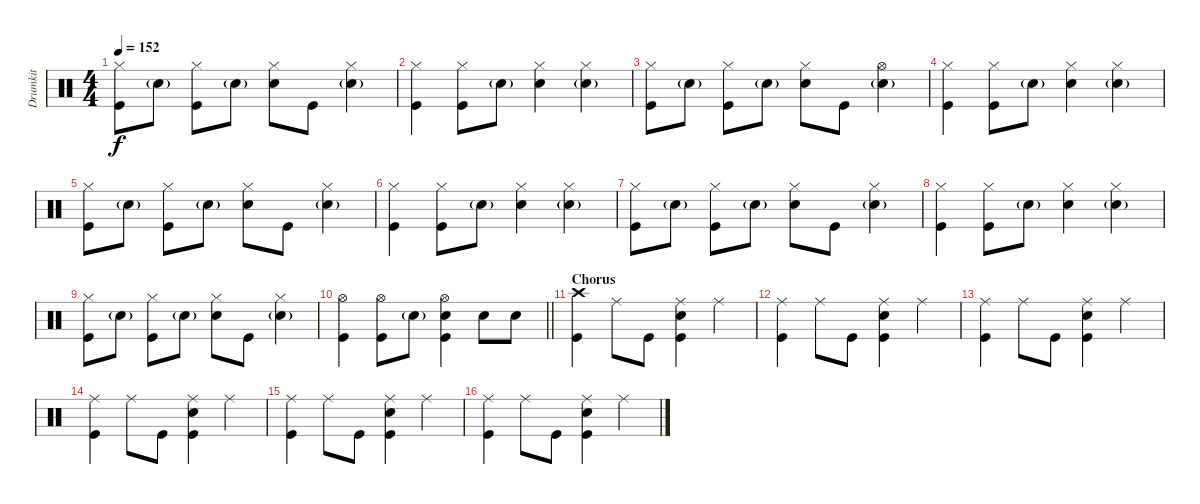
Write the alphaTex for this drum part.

\track ("Drumkit" "Drumkit") {instrument percussion}
\staff {score}
\articulation defaults
\ts (4 4)
\tempo 152
\clef neutral
\ks c
("Kick (hit)" "Hi-Hat (closed)").8{dy f} "Snare (hit) 2"{g}.8 ("Hi-Hat (closed)" "Kick (hit)").8 "Snare (hit) 2"{g}.8 ("Hi-Hat (closed)" "Snare (hit) 2").8 "Kick (hit)".8 ("Hi-Hat (closed)" "Snare (hit) 2"{g}).4 |
("Kick (hit)" "Hi-Hat (closed)").4 ("Hi-Hat (closed)" "Kick (hit)").8 "Snare (hit) 2"{g}.8 ("Hi-Hat (closed)" "Snare (hit) 2").4 ("Hi-Hat (closed)" "Snare (hit) 2"{g}).4 |
("Kick (hit)" "Hi-Hat (closed)").8 "Snare (hit) 2"{g}.8 ("Hi-Hat (closed)" "Kick (hit)").8 "Snare (hit) 2"{g}.8 ("Hi-Hat (closed)" "Snare (hit) 2").8 "Kick (hit)".8 ("Hi-Hat (open)" "Snare (hit) 2"{g}).4 |
("Kick (hit)" "Hi-Hat (closed)").4 ("Hi-Hat (closed)" "Kick (hit)").8 "Snare (hit) 2"{g}.8 ("Hi-Hat (closed)" "Snare (hit) 2").4 ("Hi-Hat (closed)" "Snare (hit) 2"{g}).4 |
("Kick (hit)" "Hi-Hat (closed)").8 "Snare (hit) 2"{g}.8 ("Hi-Hat (closed)" "Kick (hit)").8 "Snare (hit) 2"{g}.8 ("Hi-Hat (closed)" "Snare (hit) 2").8 "Kick (hit)".8 ("Hi-Hat (closed)" "Snare (hit) 2"{g}).4 |
("Kick (hit)" "Hi-Hat (closed)").4 ("Hi-Hat (closed)" "Kick (hit)").8 "Snare (hit) 2"{g}.8 ("Hi-Hat (closed)" "Snare (hit) 2").4 ("Hi-Hat (closed)" "Snare (hit) 2"{g}).4 |
("Kick (hit)" "Hi-Hat (closed)").8 "Snare (hit) 2"{g}.8 ("Hi-Hat (closed)" "Kick (hit)").8 "Snare (hit) 2"{g}.8 ("Hi-Hat (closed)" "Snare (hit) 2").8 "Kick (hit)".8 ("Hi-Hat (closed)" "Snare (hit) 2"{g}).4 |
("Kick (hit)" "Hi-Hat (closed)").4 ("Hi-Hat (closed)" "Kick (hit)").8 "Snare (hit) 2"{g}.8 ("Hi-Hat (closed)" "Snare (hit) 2").4 ("Hi-Hat (closed)" "Snare (hit) 2"{g}).4 |
("Kick (hit)" "Hi-Hat (closed)").8 "Snare (hit) 2"{g}.8 ("Hi-Hat (closed)" "Kick (hit)").8 "Snare (hit) 2"{g}.8 ("Hi-Hat (closed)" "Snare (hit) 2").8 "Kick (hit)".8 ("Hi-Hat (closed)" "Snare (hit) 2"{g}).4 |
\barLineRight lightlight
("Kick (hit)" "Hi-Hat (open)").4 ("Hi-Hat (open)" "Kick (hit)").8 "Snare (hit) 2"{g}.8 ("Kick (hit)" "Hi-Hat (open)" "Snare (hit) 2").4 "Snare (hit) 2".8 "Snare (hit) 2".8 |
\section ("" "Chorus")
("Crash high (hit)" "Kick (hit)").4 "Ride (middle)".8 "Kick (hit)".8 ("Snare (hit) 2" "Ride (middle)" "Kick (hit)").4 "Ride (middle)".4 |
("Kick (hit)" "Ride (middle)").4 "Ride (middle)".8 "Kick (hit)".8 ("Snare (hit) 2" "Ride (middle)" "Kick (hit)").4 "Ride (middle)".4 |
("Kick (hit)" "Ride (middle)").4 "Ride (middle)".8 "Kick (hit)".8 ("Snare (hit) 2" "Ride (middle)" "Kick (hit)").4 "Ride (middle)".4 |
("Kick (hit)" "Ride (middle)").4 "Ride (middle)".8 "Kick (hit)".8 ("Snare (hit) 2" "Ride (middle)" "Kick (hit)").4 "Ride (middle)".4 |
("Kick (hit)" "Ride (middle)").4 "Ride (middle)".8 "Kick (hit)".8 ("Snare (hit) 2" "Ride (middle)" "Kick (hit)").4 "Ride (middle)".4 |
("Kick (hit)" "Ride (middle)").4 "Ride (middle)".8 "Kick (hit)".8 ("Snare (hit) 2" "Ride (middle)" "Kick (hit)").4 "Ride (middle)".4
